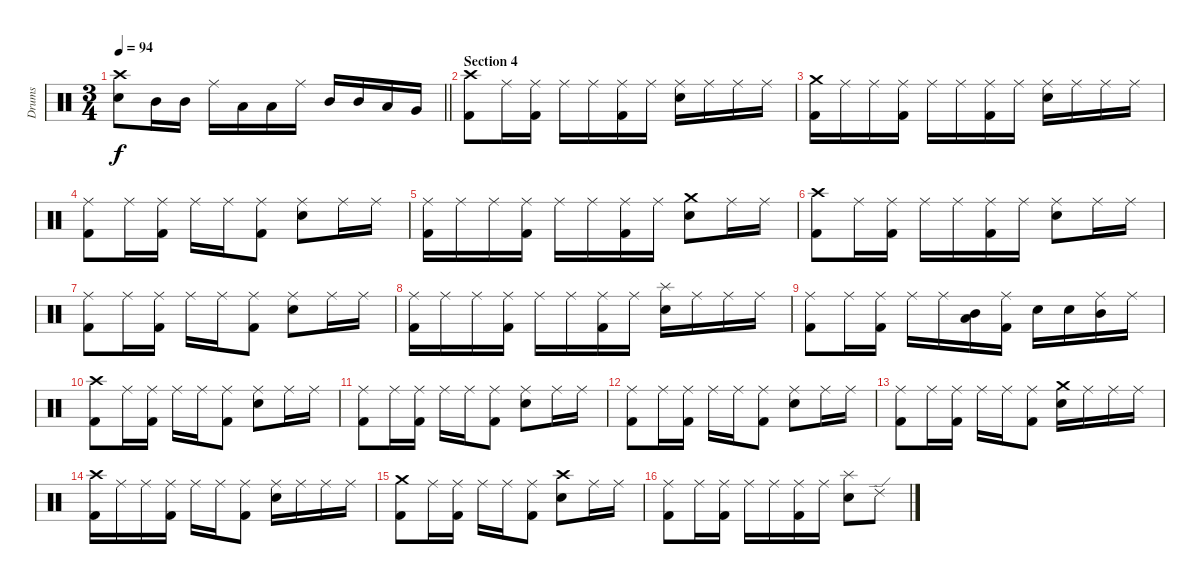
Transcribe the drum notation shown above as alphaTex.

\track ("Drums" "Drums") {instrument percussion}
\staff {score}
\articulation defaults
\ts (3 4)
\tempo 94
\clef neutral
\barLineRight lightlight
\ks c
("Crash high (hit)" "Electric Snare (hit)").8{dy f} "Mid Tom (hit)".16 "Mid Tom (hit)".16 "Ride (middle)".16 "Low Tom (hit)".16 "Low Tom (hit)".16 "Ride (middle)".16 "Mid Tom (hit)".16 "Mid Tom (hit)".16 "Low Tom (hit)".16 "Very Low Tom (hit)".16 |
\section ("" "Section 4")
("Crash high (hit)" "Kick (hit) 2").8 "Ride (middle)".16 ("Ride (middle)" "Kick (hit) 2").16 "Ride (middle)".16 "Ride (middle)".16 ("Ride (middle)" "Kick (hit) 2").16 "Ride (middle)".16 ("Ride (middle)" "Electric Snare (hit)").16 "Ride (middle)".16 "Ride (middle)".16 "Ride (middle)".16 |
("Crash medium (hit)" "Kick (hit) 2").16 "Ride (middle)".16 "Ride (middle)".16 ("Ride (middle)" "Kick (hit) 2").16 "Ride (middle)".16 "Ride (middle)".16 ("Ride (middle)" "Kick (hit) 2").16 "Ride (middle)".16 ("Ride (middle)" "Electric Snare (hit)").16 "Ride (middle)".16 "Ride (middle)".16 "Ride (middle)".16 |
("Ride (middle)" "Kick (hit) 2").8 "Ride (middle)".16 ("Ride (middle)" "Kick (hit) 2").16 "Ride (middle)".16 "Ride (middle)".16 ("Ride (middle)" "Kick (hit) 2").8 ("Ride (middle)" "Electric Snare (hit)").8 "Ride (middle)".16 "Ride (middle)".16 |
("Ride (middle)" "Kick (hit) 2").16 "Ride (middle)".16 "Ride (middle)".16 ("Ride (middle)" "Kick (hit) 2").16 "Ride (middle)".16 "Ride (middle)".16 ("Ride (middle)" "Kick (hit) 2").16 "Ride (middle)".16 ("Crash medium (hit)" "Electric Snare (hit)").8 "Ride (middle)".16 "Ride (middle)".16 |
("Crash high (hit)" "Kick (hit) 2").8 "Ride (middle)".16 ("Ride (middle)" "Kick (hit) 2").16 "Ride (middle)".16 "Ride (middle)".16 ("Ride (middle)" "Kick (hit) 2").16 "Ride (middle)".16 ("Ride (middle)" "Electric Snare (hit)").8 "Ride (middle)".16 "Ride (middle)".16 |
("Ride (middle)" "Kick (hit) 2").8 "Ride (middle)".16 ("Ride (middle)" "Kick (hit) 2").16 "Ride (middle)".16 "Ride (middle)".16 ("Ride (middle)" "Kick (hit) 2").8 ("Ride (middle)" "Electric Snare (hit)").8 "Ride (middle)".16 "Ride (middle)".16 |
("Ride (middle)" "Kick (hit) 2").16 "Ride (middle)".16 "Ride (middle)".16 ("Ride (middle)" "Kick (hit) 2").16 "Ride (middle)".16 "Ride (middle)".16 ("Ride (middle)" "Kick (hit) 2").16 "Ride (middle)".16 ("Splash (hit)" "Electric Snare (hit)").16 "Ride (middle)".16 "Ride (middle)".16 "Ride (middle)".16 |
("Ride (middle)" "Kick (hit) 2").8 "Ride (middle)".16 ("Ride (middle)" "Kick (hit) 2").16 "Ride (middle)".16 "Ride (middle)".16 ("Mid Tom (hit)" "Low Tom (hit)").16 ("Ride (middle)" "Kick (hit) 2").16 "Electric Snare (hit)".16 "Electric Snare (hit)".16 ("Ride (middle)" "Mid Tom (hit)").16 "Ride (middle)".16 |
("Crash high (hit)" "Kick (hit) 2").8 "Ride (middle)".16 ("Ride (middle)" "Kick (hit) 2").16 "Ride (middle)".16 "Ride (middle)".16 ("Ride (middle)" "Kick (hit) 2").8 ("Ride (middle)" "Electric Snare (hit)").8 "Ride (middle)".16 "Ride (middle)".16 |
("Ride (middle)" "Kick (hit) 2").8 "Ride (middle)".16 ("Ride (middle)" "Kick (hit) 2").16 "Ride (middle)".16 "Ride (middle)".16 ("Ride (middle)" "Kick (hit) 2").8 ("Ride (middle)" "Electric Snare (hit)").8 "Ride (middle)".16 "Ride (middle)".16 |
("Ride (middle)" "Kick (hit) 2").8 "Ride (middle)".16 ("Ride (middle)" "Kick (hit) 2").16 "Ride (middle)".16 "Ride (middle)".16 ("Ride (middle)" "Kick (hit) 2").8 ("Ride (middle)" "Electric Snare (hit)").8 "Ride (middle)".16 "Ride (middle)".16 |
("Ride (middle)" "Kick (hit) 2").8 "Ride (middle)".16 ("Ride (middle)" "Kick (hit) 2").16 "Ride (middle)".16 "Ride (middle)".16 ("Ride (middle)" "Kick (hit) 2").8 ("Crash medium (hit)" "Electric Snare (hit)").16 "Ride (middle)".16 "Ride (middle)".16 "Ride (middle)".16 |
("Crash high (hit)" "Kick (hit) 2").16 "Ride (middle)".16 "Ride (middle)".16 ("Ride (middle)" "Kick (hit) 2").16 "Ride (middle)".16 "Ride (middle)".16 ("Ride (middle)" "Kick (hit) 2").8 ("Ride (middle)" "Electric Snare (hit)").16 "Ride (middle)".16 "Ride (middle)".16 "Ride (middle)".16 |
("Crash medium (hit)" "Kick (hit) 2").8 "Ride (middle)".16 ("Ride (middle)" "Kick (hit) 2").16 "Ride (middle)".16 "Ride (middle)".16 ("Ride (middle)" "Kick (hit) 2").8 ("Crash high (hit)" "Electric Snare (hit)").8 "Ride (middle)".16 "Ride (middle)".16 |
("Ride (middle)" "Kick (hit) 2").8 "Ride (middle)".16 ("Ride (middle)" "Kick (hit) 2").16 "Ride (middle)".16 "Ride (middle)".16 ("Ride (middle)" "Kick (hit) 2").16 "Ride (middle)".16 ("Splash (hit)" "Electric Snare (hit)").8 "Ride (edge) 2".8
